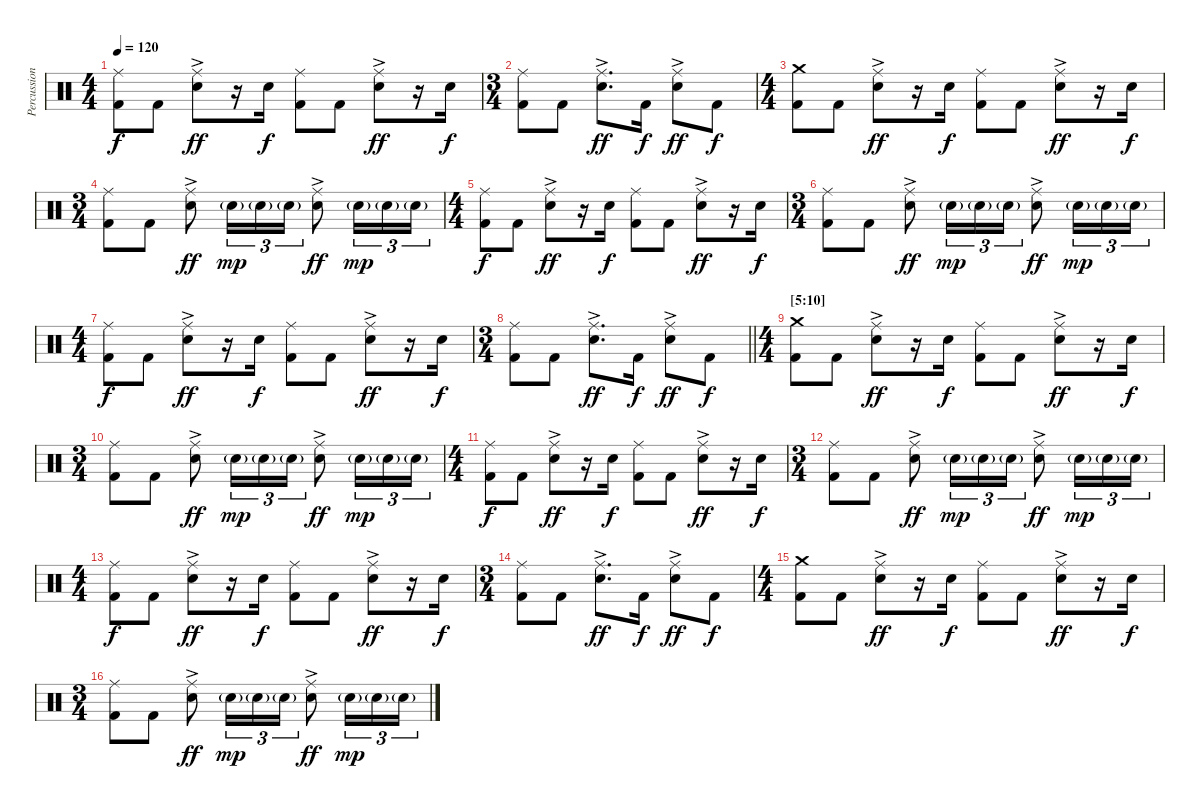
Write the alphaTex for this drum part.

\track ("Percussion" "Percussion") {instrument percussion}
\staff {score}
\articulation defaults
\ts (4 4)
\tempo 120
\clef neutral
\ks c
("Ride (middle)" "Kick (hit) 2").8{dy f} "Kick (hit) 2".8 ("Ride (middle)" "Electric Snare (hit)"{ac}).8{dy ff} r.16 "Electric Snare (hit)".16{dy f} ("Ride (middle)" "Kick (hit) 2").8 "Kick (hit) 2".8 ("Ride (middle)" "Electric Snare (hit)"{ac}).8{dy ff} r.16 "Electric Snare (hit)".16{dy f} |
\ts (3 4)
("Ride (middle)" "Kick (hit) 2").8 "Kick (hit) 2".8 ("Ride (middle)" "Electric Snare (hit)"{ac}).8{d dy ff} "Kick (hit) 2".16{dy f} ("Ride (middle)" "Electric Snare (hit)"{ac}).8{dy ff} "Kick (hit) 2".8{dy f} |
\ts (4 4)
("Crash medium (hit)" "Kick (hit) 2").8 "Kick (hit) 2".8 ("Ride (middle)" "Electric Snare (hit)"{ac}).8{dy ff} r.16 "Electric Snare (hit)".16{dy f} ("Ride (middle)" "Kick (hit) 2").8 "Kick (hit) 2".8 ("Ride (middle)" "Electric Snare (hit)"{ac}).8{dy ff} r.16 "Electric Snare (hit)".16{dy f} |
\ts (3 4)
("Ride (middle)" "Kick (hit) 2").8 "Kick (hit) 2".8 ("Ride (middle)" "Electric Snare (hit)"{ac}).8{dy ff} "Electric Snare (hit)"{g}.16{tu (3 2) dy mp} "Electric Snare (hit)"{g}.16{tu (3 2)} "Electric Snare (hit)"{g}.16{tu (3 2)} ("Ride (middle)" "Electric Snare (hit)"{ac}).8{dy ff} "Electric Snare (hit)"{g}.16{tu (3 2) dy mp} "Electric Snare (hit)"{g}.16{tu (3 2)} "Electric Snare (hit)"{g}.16{tu (3 2)} |
\ts (4 4)
("Ride (middle)" "Kick (hit) 2").8{dy f} "Kick (hit) 2".8 ("Ride (middle)" "Electric Snare (hit)"{ac}).8{dy ff} r.16 "Electric Snare (hit)".16{dy f} ("Ride (middle)" "Kick (hit) 2").8 "Kick (hit) 2".8 ("Ride (middle)" "Electric Snare (hit)"{ac}).8{dy ff} r.16 "Electric Snare (hit)".16{dy f} |
\ts (3 4)
("Ride (middle)" "Kick (hit) 2").8 "Kick (hit) 2".8 ("Ride (middle)" "Electric Snare (hit)"{ac}).8{dy ff} "Electric Snare (hit)"{g}.16{tu (3 2) dy mp} "Electric Snare (hit)"{g}.16{tu (3 2)} "Electric Snare (hit)"{g}.16{tu (3 2)} ("Ride (middle)" "Electric Snare (hit)"{ac}).8{dy ff} "Electric Snare (hit)"{g}.16{tu (3 2) dy mp} "Electric Snare (hit)"{g}.16{tu (3 2)} "Electric Snare (hit)"{g}.16{tu (3 2)} |
\ts (4 4)
("Ride (middle)" "Kick (hit) 2").8{dy f} "Kick (hit) 2".8 ("Ride (middle)" "Electric Snare (hit)"{ac}).8{dy ff} r.16 "Electric Snare (hit)".16{dy f} ("Ride (middle)" "Kick (hit) 2").8 "Kick (hit) 2".8 ("Ride (middle)" "Electric Snare (hit)"{ac}).8{dy ff} r.16 "Electric Snare (hit)".16{dy f} |
\ts (3 4)
\barLineRight lightlight
("Ride (middle)" "Kick (hit) 2").8 "Kick (hit) 2".8 ("Ride (middle)" "Electric Snare (hit)"{ac}).8{d dy ff} "Kick (hit) 2".16{dy f} ("Ride (middle)" "Electric Snare (hit)"{ac}).8{dy ff} "Kick (hit) 2".8{dy f} |
\ts (4 4)
\section ("" "[5:10]")
("Crash medium (hit)" "Kick (hit) 2").8{volume 8} "Kick (hit) 2".8 ("Ride (middle)" "Electric Snare (hit)"{ac}).8{dy ff} r.16 "Electric Snare (hit)".16{dy f} ("Ride (middle)" "Kick (hit) 2").8 "Kick (hit) 2".8 ("Ride (middle)" "Electric Snare (hit)"{ac}).8{dy ff} r.16 "Electric Snare (hit)".16{dy f} |
\ts (3 4)
("Ride (middle)" "Kick (hit) 2").8 "Kick (hit) 2".8 ("Ride (middle)" "Electric Snare (hit)"{ac}).8{dy ff} "Electric Snare (hit)"{g}.16{tu (3 2) dy mp} "Electric Snare (hit)"{g}.16{tu (3 2)} "Electric Snare (hit)"{g}.16{tu (3 2)} ("Ride (middle)" "Electric Snare (hit)"{ac}).8{dy ff} "Electric Snare (hit)"{g}.16{tu (3 2) dy mp} "Electric Snare (hit)"{g}.16{tu (3 2)} "Electric Snare (hit)"{g}.16{tu (3 2)} |
\ts (4 4)
("Ride (middle)" "Kick (hit) 2").8{dy f} "Kick (hit) 2".8 ("Ride (middle)" "Electric Snare (hit)"{ac}).8{dy ff} r.16 "Electric Snare (hit)".16{dy f} ("Ride (middle)" "Kick (hit) 2").8 "Kick (hit) 2".8 ("Ride (middle)" "Electric Snare (hit)"{ac}).8{dy ff} r.16 "Electric Snare (hit)".16{dy f} |
\ts (3 4)
("Ride (middle)" "Kick (hit) 2").8 "Kick (hit) 2".8 ("Ride (middle)" "Electric Snare (hit)"{ac}).8{dy ff} "Electric Snare (hit)"{g}.16{tu (3 2) dy mp} "Electric Snare (hit)"{g}.16{tu (3 2)} "Electric Snare (hit)"{g}.16{tu (3 2)} ("Ride (middle)" "Electric Snare (hit)"{ac}).8{dy ff} "Electric Snare (hit)"{g}.16{tu (3 2) dy mp} "Electric Snare (hit)"{g}.16{tu (3 2)} "Electric Snare (hit)"{g}.16{tu (3 2)} |
\ts (4 4)
("Ride (middle)" "Kick (hit) 2").8{dy f} "Kick (hit) 2".8 ("Ride (middle)" "Electric Snare (hit)"{ac}).8{dy ff} r.16 "Electric Snare (hit)".16{dy f} ("Ride (middle)" "Kick (hit) 2").8 "Kick (hit) 2".8 ("Ride (middle)" "Electric Snare (hit)"{ac}).8{dy ff} r.16 "Electric Snare (hit)".16{dy f} |
\ts (3 4)
("Ride (middle)" "Kick (hit) 2").8 "Kick (hit) 2".8 ("Ride (middle)" "Electric Snare (hit)"{ac}).8{d dy ff} "Kick (hit) 2".16{dy f} ("Ride (middle)" "Electric Snare (hit)"{ac}).8{dy ff} "Kick (hit) 2".8{dy f} |
\ts (4 4)
("Crash medium (hit)" "Kick (hit) 2").8 "Kick (hit) 2".8 ("Ride (middle)" "Electric Snare (hit)"{ac}).8{dy ff} r.16 "Electric Snare (hit)".16{dy f} ("Ride (middle)" "Kick (hit) 2").8 "Kick (hit) 2".8 ("Ride (middle)" "Electric Snare (hit)"{ac}).8{dy ff} r.16 "Electric Snare (hit)".16{dy f} |
\ts (3 4)
("Ride (middle)" "Kick (hit) 2").8 "Kick (hit) 2".8 ("Ride (middle)" "Electric Snare (hit)"{ac}).8{dy ff} "Electric Snare (hit)"{g}.16{tu (3 2) dy mp} "Electric Snare (hit)"{g}.16{tu (3 2)} "Electric Snare (hit)"{g}.16{tu (3 2)} ("Ride (middle)" "Electric Snare (hit)"{ac}).8{dy ff} "Electric Snare (hit)"{g}.16{tu (3 2) dy mp} "Electric Snare (hit)"{g}.16{tu (3 2)} "Electric Snare (hit)"{g}.16{tu (3 2)}
